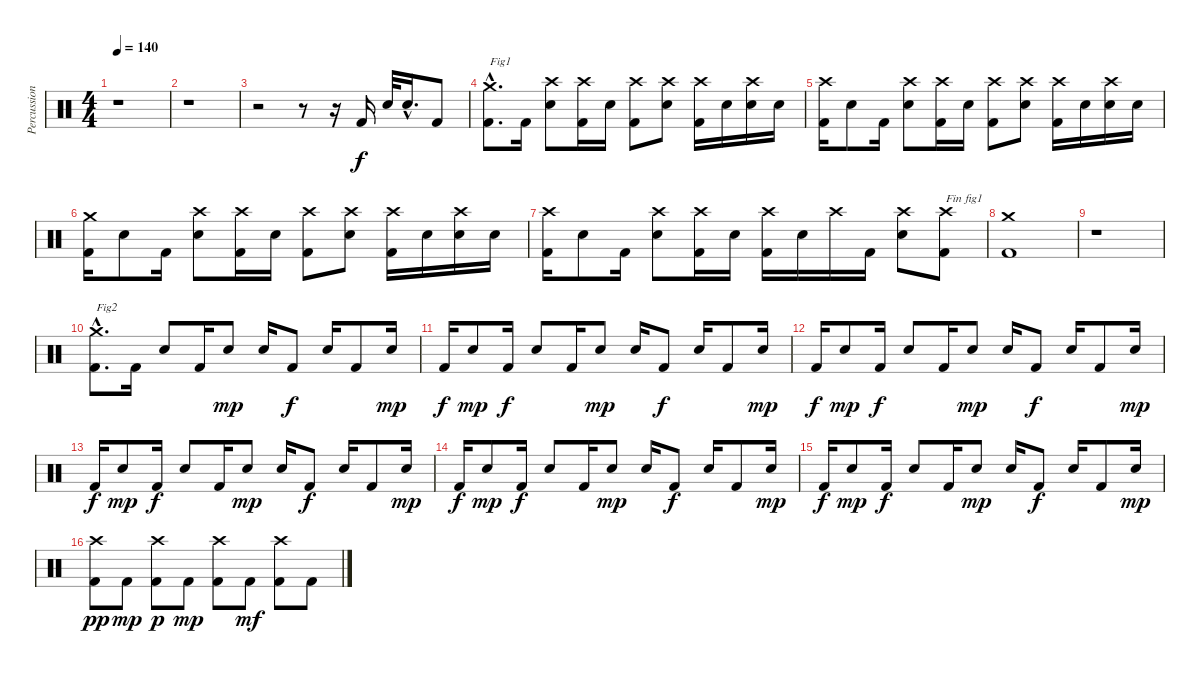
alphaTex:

\track ("Percussions" "Percussion") {instrument percussion}
\staff {score}
\articulation defaults
\ts (4 4)
\tempo 140
\clef neutral
\ks c
r.1{dy f} |
r.1 |
r.2 r.8 r.16 "Kick (hit) 2".16 "Electric Snare (hit)".32 "Electric Snare (hit)"{hac}.16{d} "Kick (hit) 2".8 |
("Kick (hit) 2"{hac} "Crash medium (hit)"{hac}).8{d txt "Fig1"} "Kick (hit) 2".16 ("Electric Snare (hit)" "Crash high (hit)").8 ("Kick (hit) 2" "Crash high (hit)").16 "Electric Snare (hit)".16 ("Kick (hit) 2" "Crash high (hit)").8 ("Electric Snare (hit)" "Crash high (hit)").8 ("Kick (hit) 2" "Crash high (hit)").16 "Electric Snare (hit)".16 ("Electric Snare (hit)" "Crash high (hit)").16 "Electric Snare (hit)".16 |
("Kick (hit) 2" "Crash high (hit)").16 "Electric Snare (hit)".8 "Kick (hit) 2".16 ("Electric Snare (hit)" "Crash high (hit)").8 ("Kick (hit) 2" "Crash high (hit)").16 "Electric Snare (hit)".16 ("Kick (hit) 2" "Crash high (hit)").8 ("Electric Snare (hit)" "Crash high (hit)").8 ("Kick (hit) 2" "Crash high (hit)").16 "Electric Snare (hit)".16 ("Electric Snare (hit)" "Crash high (hit)").16 "Electric Snare (hit)".16 |
("Kick (hit) 2" "Crash medium (hit)").16 "Electric Snare (hit)".8 "Kick (hit) 2".16 ("Electric Snare (hit)" "Crash high (hit)").8 ("Kick (hit) 2" "Crash high (hit)").16 "Electric Snare (hit)".16 ("Kick (hit) 2" "Crash high (hit)").8 ("Electric Snare (hit)" "Crash high (hit)").8 ("Kick (hit) 2" "Crash high (hit)").16 "Electric Snare (hit)".16 ("Electric Snare (hit)" "Crash high (hit)").16 "Electric Snare (hit)".16 |
("Kick (hit) 2" "Crash high (hit)").16 "Electric Snare (hit)".8 "Kick (hit) 2".16 ("Electric Snare (hit)" "Crash high (hit)").8 ("Kick (hit) 2" "Crash high (hit)").16 "Electric Snare (hit)".16 ("Kick (hit) 2" "Crash high (hit)").16 "Electric Snare (hit)".16 "Crash high (hit)".16 "Kick (hit) 2".16 ("Electric Snare (hit)" "Crash high (hit)").8 ("Kick (hit) 2" "Crash high (hit)").8{txt "Fin fig1"} |
("Kick (hit) 2" "Crash medium (hit)").1 |
r.1 |
("Kick (hit) 2"{hac} "Crash medium (hit)"{hac}).8{d txt "Fig2"} "Kick (hit) 2".16 "Electric Snare (hit)".8 "Kick (hit) 2".16 "Snare (hit) 2".8{dy mp} "Snare (hit) 2".16 "Kick (hit) 2".8{dy f} "Electric Snare (hit)".16 "Kick (hit) 2".8 "Snare (hit) 2".16{dy mp} |
"Kick (hit) 2".16{dy f} "Snare (hit) 2".8{dy mp} "Kick (hit) 2".16{dy f} "Electric Snare (hit)".8 "Kick (hit) 2".16 "Snare (hit) 2".8{dy mp} "Snare (hit) 2".16 "Kick (hit) 2".8{dy f} "Electric Snare (hit)".16 "Kick (hit) 2".8 "Snare (hit) 2".16{dy mp} |
"Kick (hit) 2".16{dy f} "Snare (hit) 2".8{dy mp} "Kick (hit) 2".16{dy f} "Electric Snare (hit)".8 "Kick (hit) 2".16 "Snare (hit) 2".8{dy mp} "Snare (hit) 2".16 "Kick (hit) 2".8{dy f} "Electric Snare (hit)".16 "Kick (hit) 2".8 "Snare (hit) 2".16{dy mp} |
"Kick (hit) 2".16{dy f} "Snare (hit) 2".8{dy mp} "Kick (hit) 2".16{dy f} "Electric Snare (hit)".8 "Kick (hit) 2".16 "Snare (hit) 2".8{dy mp} "Snare (hit) 2".16 "Kick (hit) 2".8{dy f} "Electric Snare (hit)".16 "Kick (hit) 2".8 "Snare (hit) 2".16{dy mp} |
"Kick (hit) 2".16{dy f} "Snare (hit) 2".8{dy mp} "Kick (hit) 2".16{dy f} "Electric Snare (hit)".8 "Kick (hit) 2".16 "Snare (hit) 2".8{dy mp} "Snare (hit) 2".16 "Kick (hit) 2".8{dy f} "Electric Snare (hit)".16 "Kick (hit) 2".8 "Snare (hit) 2".16{dy mp} |
"Kick (hit) 2".16{dy f} "Snare (hit) 2".8{dy mp} "Kick (hit) 2".16{dy f} "Electric Snare (hit)".8 "Kick (hit) 2".16 "Snare (hit) 2".8{dy mp} "Snare (hit) 2".16 "Kick (hit) 2".8{dy f} "Electric Snare (hit)".16 "Kick (hit) 2".8 "Snare (hit) 2".16{dy mp} |
("Kick (hit) 2" "Crash high (hit)").8{dy pp} "Kick (hit) 2".8{dy mp} ("Kick (hit) 2" "Crash high (hit)").8{dy p} "Kick (hit) 2".8{dy mp} ("Kick (hit) 2" "Crash high (hit)").8 "Kick (hit) 2".8{dy mf} ("Kick (hit) 2" "Crash high (hit)").8 "Kick (hit) 2".8
